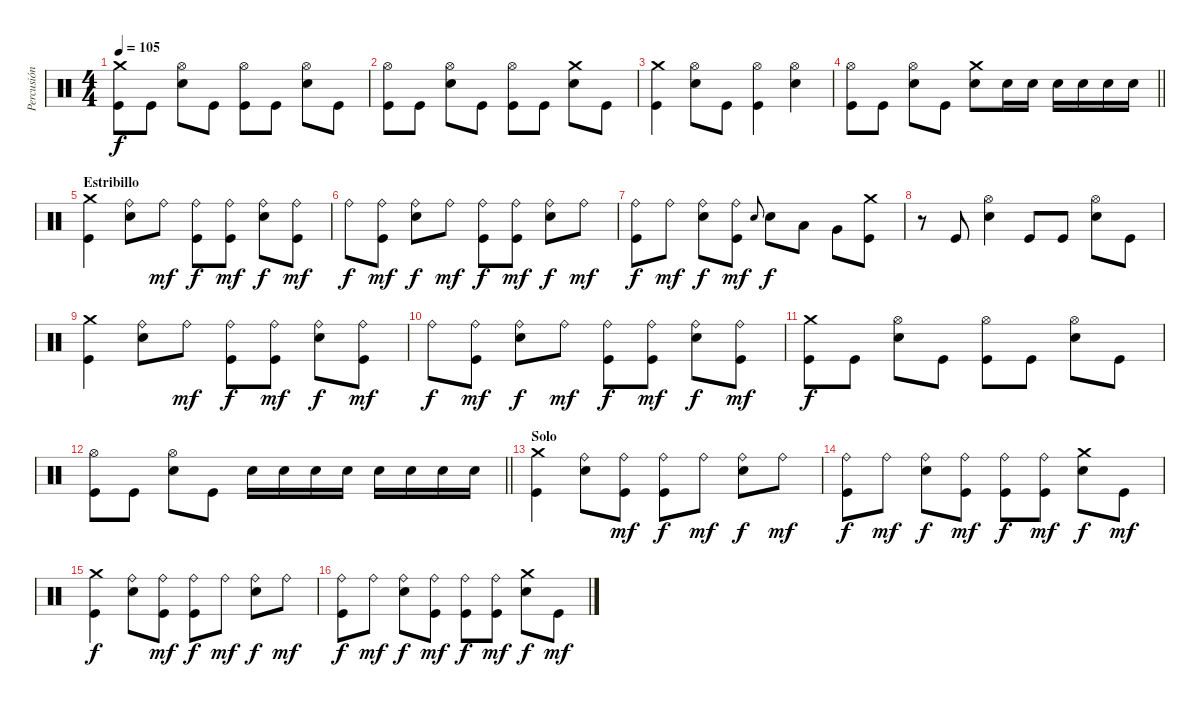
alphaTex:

\track ("Percusión" "Percusión") {instrument percussion}
\staff {score}
\articulation defaults
\ts (4 4)
\tempo 105
\clef neutral
\ks c
("Crash medium (hit)" "Kick (hit)").8{dy f} "Kick (hit)".8 ("Hi-Hat (open)" "Snare (hit) 2").8 "Kick (hit)".8 ("Hi-Hat (open)" "Kick (hit)").8 "Kick (hit)".8 ("Hi-Hat (open)" "Snare (hit) 2").8 "Kick (hit)".8 |
("Hi-Hat (open)" "Kick (hit)").8 "Kick (hit)".8 ("Hi-Hat (open)" "Snare (hit) 2").8 "Kick (hit)".8 ("Hi-Hat (open)" "Kick (hit)").8 "Kick (hit)".8 ("Crash medium (hit)" "Snare (hit) 2").8 "Kick (hit)".8 |
("Crash medium (hit)" "Kick (hit)").4 ("Hi-Hat (open)" "Snare (hit) 2").8 "Kick (hit)".8 ("Hi-Hat (open)" "Kick (hit)").4 ("Hi-Hat (open)" "Snare (hit) 2").4 |
\barLineRight lightlight
("Hi-Hat (open)" "Kick (hit)").8 "Kick (hit)".8 ("Hi-Hat (open)" "Snare (hit) 2").8 "Kick (hit)".8 ("Crash medium (hit)" "Snare (hit) 2").8 "Snare (hit) 2".16 "Snare (hit) 2".16 "Snare (hit) 2".16 "Snare (hit) 2".16 "Snare (hit) 2".16 "Snare (hit) 2".16 |
\section ("" "Estribillo")
("Crash medium (hit)" "Kick (hit)").4 ("Ride (bell)" "Snare (hit) 2").8 "Ride (bell)".8{dy mf} ("Ride (bell)" "Kick (hit)").8{dy f} ("Ride (bell)" "Kick (hit)").8{dy mf} ("Ride (bell)" "Snare (hit) 2").8{dy f} ("Ride (bell)" "Kick (hit)").8{dy mf} |
"Ride (bell)".8{dy f} ("Ride (bell)" "Kick (hit)").8{dy mf} ("Ride (bell)" "Snare (hit) 2").8{dy f} "Ride (bell)".8{dy mf} ("Ride (bell)" "Kick (hit)").8{dy f} ("Ride (bell)" "Kick (hit)").8{dy mf} ("Ride (bell)" "Snare (hit) 2").8{dy f} "Ride (bell)".8{dy mf} |
("Ride (bell)" "Kick (hit)").8{dy f} "Ride (bell)".8{dy mf} ("Ride (bell)" "Snare (hit) 2").8{dy f} ("Ride (bell)" "Kick (hit)").8{dy mf} "Snare (hit) 2".8{gr onbeat} "Snare (hit) 2".8{dy f} "Low Tom (hit)".8 "Very Low Tom (hit)".8 ("Crash medium (hit)" "Kick (hit)").8 |
r.8 "Kick (hit)".8 ("Hi-Hat (open)" "Snare (hit) 2").4 "Kick (hit)".8 "Kick (hit)".8 ("Hi-Hat (open)" "Snare (hit) 2").8 "Kick (hit)".8 |
("Crash medium (hit)" "Kick (hit)").4 ("Ride (bell)" "Snare (hit) 2").8 "Ride (bell)".8{dy mf} ("Ride (bell)" "Kick (hit)").8{dy f} ("Ride (bell)" "Kick (hit)").8{dy mf} ("Ride (bell)" "Snare (hit) 2").8{dy f} ("Ride (bell)" "Kick (hit)").8{dy mf} |
"Ride (bell)".8{dy f} ("Ride (bell)" "Kick (hit)").8{dy mf} ("Ride (bell)" "Snare (hit) 2").8{dy f} "Ride (bell)".8{dy mf} ("Ride (bell)" "Kick (hit)").8{dy f} ("Ride (bell)" "Kick (hit)").8{dy mf} ("Ride (bell)" "Snare (hit) 2").8{dy f} ("Ride (bell)" "Kick (hit)").8{dy mf} |
("Crash medium (hit)" "Kick (hit)").8{dy f} "Kick (hit)".8 ("Hi-Hat (open)" "Snare (hit) 2").8 "Kick (hit)".8 ("Hi-Hat (open)" "Kick (hit)").8 "Kick (hit)".8 ("Hi-Hat (open)" "Snare (hit) 2").8 "Kick (hit)".8 |
\barLineRight lightlight
("Hi-Hat (open)" "Kick (hit)").8 "Kick (hit)".8 ("Hi-Hat (open)" "Snare (hit) 2").8 "Kick (hit)".8 "Snare (hit) 2".16 "Snare (hit) 2".16 "Snare (hit) 2".16 "Snare (hit) 2".16 "Snare (hit) 2".16 "Snare (hit) 2".16 "Snare (hit) 2".16 "Snare (hit) 2".16 |
\section ("" "Solo")
("Crash medium (hit)" "Kick (hit)").4 ("Ride (bell)" "Snare (hit) 2").8 ("Ride (bell)" "Kick (hit)").8{dy mf} ("Ride (bell)" "Kick (hit)").8{dy f} "Ride (bell)".8{dy mf} ("Ride (bell)" "Snare (hit) 2").8{dy f} "Ride (bell)".8{dy mf} |
("Ride (bell)" "Kick (hit)").8{dy f} "Ride (bell)".8{dy mf} ("Ride (bell)" "Snare (hit) 2").8{dy f} ("Ride (bell)" "Kick (hit)").8{dy mf} ("Ride (bell)" "Kick (hit)").8{dy f} ("Ride (bell)" "Kick (hit)").8{dy mf} ("Crash medium (hit)" "Snare (hit) 2").8{dy f} "Kick (hit)".8{dy mf} |
("Crash medium (hit)" "Kick (hit)").4{dy f} ("Ride (bell)" "Snare (hit) 2").8 ("Ride (bell)" "Kick (hit)").8{dy mf} ("Ride (bell)" "Kick (hit)").8{dy f} "Ride (bell)".8{dy mf} ("Ride (bell)" "Snare (hit) 2").8{dy f} "Ride (bell)".8{dy mf} |
("Ride (bell)" "Kick (hit)").8{dy f} "Ride (bell)".8{dy mf} ("Ride (bell)" "Snare (hit) 2").8{dy f} ("Ride (bell)" "Kick (hit)").8{dy mf} ("Ride (bell)" "Kick (hit)").8{dy f} ("Ride (bell)" "Kick (hit)").8{dy mf} ("Crash medium (hit)" "Snare (hit) 2").8{dy f} "Kick (hit)".8{dy mf}
